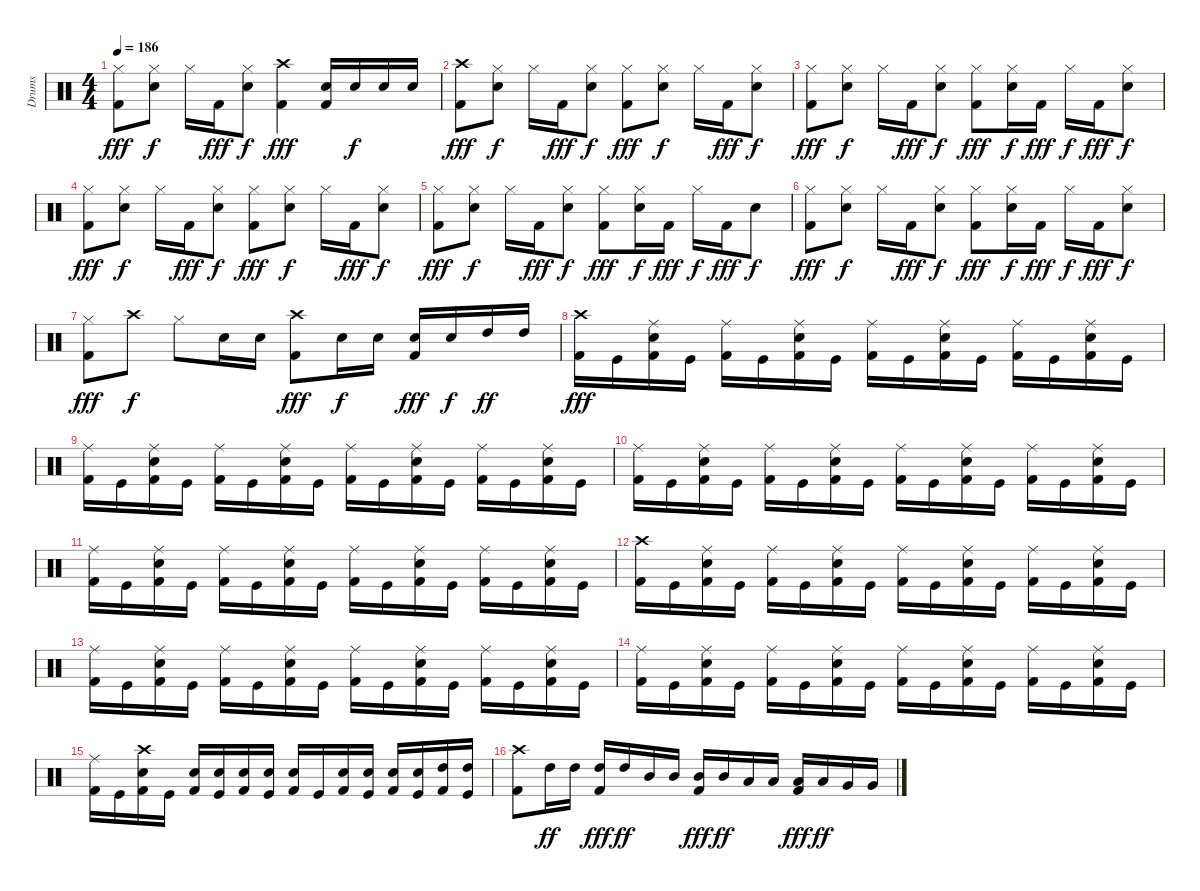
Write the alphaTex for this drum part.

\track ("Drums" "Drums") {instrument percussion}
\staff {score}
\articulation defaults
\ts (4 4)
\tempo 186
\clef neutral
\ks c
("Hi-Hat (closed)" "Kick (hit) 2").8{dy fff} ("Hi-Hat (closed)" "Electric Snare (hit)").8{dy f} "Hi-Hat (closed)".16 "Kick (hit) 2".16{dy fff} ("Hi-Hat (closed)" "Electric Snare (hit)").8{dy f} ("Crash high (hit)" "Kick (hit) 2").4{dy fff} ("Electric Snare (hit)" "Kick (hit) 2").16 "Electric Snare (hit)".16{dy f} "Electric Snare (hit)".16 "Electric Snare (hit)".16 |
("Crash high (hit)" "Kick (hit) 2").8{dy fff} ("Hi-Hat (closed)" "Electric Snare (hit)").8{dy f} "Hi-Hat (closed)".16 "Kick (hit) 2".16{dy fff} ("Hi-Hat (closed)" "Electric Snare (hit)").8{dy f} ("Hi-Hat (closed)" "Kick (hit) 2").8{dy fff} ("Hi-Hat (closed)" "Electric Snare (hit)").8{dy f} "Hi-Hat (closed)".16 "Kick (hit) 2".16{dy fff} ("Hi-Hat (closed)" "Electric Snare (hit)").8{dy f} |
("Hi-Hat (closed)" "Kick (hit) 2").8{dy fff} ("Hi-Hat (closed)" "Electric Snare (hit)").8{dy f} "Hi-Hat (closed)".16 "Kick (hit) 2".16{dy fff} ("Hi-Hat (closed)" "Electric Snare (hit)").8{dy f} ("Hi-Hat (closed)" "Kick (hit) 2").8{dy fff} ("Hi-Hat (closed)" "Electric Snare (hit)").16{dy f} "Kick (hit) 2".16{dy fff} "Hi-Hat (closed)".16{dy f} "Kick (hit) 2".16{dy fff} ("Hi-Hat (closed)" "Electric Snare (hit)").8{dy f} |
("Hi-Hat (closed)" "Kick (hit) 2").8{dy fff} ("Hi-Hat (closed)" "Electric Snare (hit)").8{dy f} "Hi-Hat (closed)".16 "Kick (hit) 2".16{dy fff} ("Hi-Hat (closed)" "Electric Snare (hit)").8{dy f} ("Hi-Hat (closed)" "Kick (hit) 2").8{dy fff} ("Hi-Hat (closed)" "Electric Snare (hit)").8{dy f} "Hi-Hat (closed)".16 "Kick (hit) 2".16{dy fff} ("Hi-Hat (closed)" "Electric Snare (hit)").8{dy f} |
("Hi-Hat (closed)" "Kick (hit) 2").8{dy fff} ("Hi-Hat (closed)" "Electric Snare (hit)").8{dy f} "Hi-Hat (closed)".16 "Kick (hit) 2".16{dy fff} ("Hi-Hat (closed)" "Electric Snare (hit)").8{dy f} ("Hi-Hat (closed)" "Kick (hit) 2").8{dy fff} ("Hi-Hat (closed)" "Electric Snare (hit)").16{dy f} "Kick (hit) 2".16{dy fff} "Hi-Hat (closed)".16{dy f} "Kick (hit) 2".16{dy fff} "Electric Snare (hit)".8{dy f} |
("Hi-Hat (closed)" "Kick (hit) 2").8{dy fff} ("Hi-Hat (closed)" "Electric Snare (hit)").8{dy f} "Hi-Hat (closed)".16 "Kick (hit) 2".16{dy fff} ("Hi-Hat (closed)" "Electric Snare (hit)").8{dy f} ("Hi-Hat (closed)" "Kick (hit) 2").8{dy fff} ("Hi-Hat (closed)" "Electric Snare (hit)").16{dy f} "Kick (hit) 2".16{dy fff} "Hi-Hat (closed)".16{dy f} "Kick (hit) 2".16{dy fff} ("Hi-Hat (closed)" "Electric Snare (hit)").8{dy f} |
("Hi-Hat (closed)" "Kick (hit) 2").8{dy fff} "Crash high (hit)".8{dy f} "Hi-Hat (closed)".8 "Electric Snare (hit)".16 "Electric Snare (hit)".16 ("Crash high (hit)" "Kick (hit) 2").8{dy fff} "Electric Snare (hit)".16{dy f} "Electric Snare (hit)".16 ("Electric Snare (hit)" "Kick (hit) 2").16{dy fff} "Electric Snare (hit)".16{dy f} "High Tom (hit)".16{dy ff} "High Tom (hit)".16 |
("Crash high (hit)" "Kick (hit) 2").16{dy fff} "Kick (hit)".16 ("Ride (middle)" "Electric Snare (hit)" "Kick (hit) 2").16 "Kick (hit)".16 ("Ride (middle)" "Kick (hit) 2").16 "Kick (hit)".16 ("Ride (middle)" "Electric Snare (hit)" "Kick (hit) 2").16 "Kick (hit)".16 ("Ride (middle)" "Kick (hit) 2").16 "Kick (hit)".16 ("Ride (middle)" "Electric Snare (hit)" "Kick (hit) 2").16 "Kick (hit)".16 ("Ride (middle)" "Kick (hit) 2").16 "Kick (hit)".16 ("Ride (middle)" "Electric Snare (hit)" "Kick (hit) 2").16 "Kick (hit)".16 |
("Ride (middle)" "Kick (hit) 2").16 "Kick (hit)".16 ("Ride (middle)" "Electric Snare (hit)" "Kick (hit) 2").16 "Kick (hit)".16 ("Ride (middle)" "Kick (hit) 2").16 "Kick (hit)".16 ("Ride (middle)" "Electric Snare (hit)" "Kick (hit) 2").16 "Kick (hit)".16 ("Ride (middle)" "Kick (hit) 2").16 "Kick (hit)".16 ("Ride (middle)" "Electric Snare (hit)" "Kick (hit) 2").16 "Kick (hit)".16 ("Ride (middle)" "Kick (hit) 2").16 "Kick (hit)".16 ("Ride (middle)" "Electric Snare (hit)" "Kick (hit) 2").16 "Kick (hit)".16 |
("Ride (middle)" "Kick (hit) 2").16 "Kick (hit)".16 ("Ride (middle)" "Electric Snare (hit)" "Kick (hit) 2").16 "Kick (hit)".16 ("Ride (middle)" "Kick (hit) 2").16 "Kick (hit)".16 ("Ride (middle)" "Electric Snare (hit)" "Kick (hit) 2").16 "Kick (hit)".16 ("Ride (middle)" "Kick (hit) 2").16 "Kick (hit)".16 ("Ride (middle)" "Electric Snare (hit)" "Kick (hit) 2").16 "Kick (hit)".16 ("Ride (middle)" "Kick (hit) 2").16 "Kick (hit)".16 ("Ride (middle)" "Electric Snare (hit)" "Kick (hit) 2").16 "Kick (hit)".16 |
("Ride (middle)" "Kick (hit) 2").16 "Kick (hit)".16 ("Ride (middle)" "Electric Snare (hit)" "Kick (hit) 2").16 "Kick (hit)".16 ("Ride (middle)" "Kick (hit) 2").16 "Kick (hit)".16 ("Ride (middle)" "Electric Snare (hit)" "Kick (hit) 2").16 "Kick (hit)".16 ("Ride (middle)" "Kick (hit) 2").16 "Kick (hit)".16 ("Ride (middle)" "Electric Snare (hit)" "Kick (hit) 2").16 "Kick (hit)".16 ("Ride (middle)" "Kick (hit) 2").16 "Kick (hit)".16 ("Ride (middle)" "Electric Snare (hit)" "Kick (hit) 2").16 "Kick (hit)".16 |
("Crash high (hit)" "Kick (hit) 2").16 "Kick (hit)".16 ("Ride (middle)" "Electric Snare (hit)" "Kick (hit) 2").16 "Kick (hit)".16 ("Ride (middle)" "Kick (hit) 2").16 "Kick (hit)".16 ("Ride (middle)" "Electric Snare (hit)" "Kick (hit) 2").16 "Kick (hit)".16 ("Ride (middle)" "Kick (hit) 2").16 "Kick (hit)".16 ("Ride (middle)" "Electric Snare (hit)" "Kick (hit) 2").16 "Kick (hit)".16 ("Ride (middle)" "Kick (hit) 2").16 "Kick (hit)".16 ("Ride (middle)" "Electric Snare (hit)" "Kick (hit) 2").16 "Kick (hit)".16 |
("Ride (middle)" "Kick (hit) 2").16 "Kick (hit)".16 ("Ride (middle)" "Electric Snare (hit)" "Kick (hit) 2").16 "Kick (hit)".16 ("Ride (middle)" "Kick (hit) 2").16 "Kick (hit)".16 ("Ride (middle)" "Electric Snare (hit)" "Kick (hit) 2").16 "Kick (hit)".16 ("Ride (middle)" "Kick (hit) 2").16 "Kick (hit)".16 ("Ride (middle)" "Electric Snare (hit)" "Kick (hit) 2").16 "Kick (hit)".16 ("Ride (middle)" "Kick (hit) 2").16 "Kick (hit)".16 ("Ride (middle)" "Electric Snare (hit)" "Kick (hit) 2").16 "Kick (hit)".16 |
("Ride (middle)" "Kick (hit) 2").16 "Kick (hit)".16 ("Ride (middle)" "Electric Snare (hit)" "Kick (hit) 2").16 "Kick (hit)".16 ("Ride (middle)" "Kick (hit) 2").16 "Kick (hit)".16 ("Ride (middle)" "Electric Snare (hit)" "Kick (hit) 2").16 "Kick (hit)".16 ("Ride (middle)" "Kick (hit) 2").16 "Kick (hit)".16 ("Ride (middle)" "Electric Snare (hit)" "Kick (hit) 2").16 "Kick (hit)".16 ("Ride (middle)" "Kick (hit) 2").16 "Kick (hit)".16 ("Ride (middle)" "Electric Snare (hit)" "Kick (hit) 2").16 "Kick (hit)".16 |
("Ride (middle)" "Kick (hit) 2").16 "Kick (hit)".16 ("Crash high (hit)" "Electric Snare (hit)" "Kick (hit) 2").16 "Kick (hit)".16 ("Electric Snare (hit)" "Kick (hit) 2").16 ("Electric Snare (hit)" "Kick (hit)").16 ("Electric Snare (hit)" "Kick (hit) 2").16 ("Electric Snare (hit)" "Kick (hit)").16 ("Electric Snare (hit)" "Kick (hit) 2").16 "Kick (hit)".16 ("Electric Snare (hit)" "Kick (hit) 2").16 ("Electric Snare (hit)" "Kick (hit)").16 ("Electric Snare (hit)" "Kick (hit) 2").16 ("Electric Snare (hit)" "Kick (hit)").16 ("High Tom (hit)" "Kick (hit) 2").16 ("High Tom (hit)" "Kick (hit)").16 |
("Crash high (hit)" "Kick (hit) 2").8 "High Tom (hit)".16{dy ff} "High Tom (hit)".16 ("High Tom (hit)" "Kick (hit) 2").16{dy fff} "High Tom (hit)".16{dy ff} "Mid Tom (hit)".16 "Mid Tom (hit)".16 ("Mid Tom (hit)" "Kick (hit) 2").16{dy fff} "Mid Tom (hit)".16{dy ff} "Low Tom (hit)".16 "Low Tom (hit)".16 ("Low Tom (hit)" "Kick (hit) 2").16{dy fff} "Low Tom (hit)".16{dy ff} "Very Low Tom (hit)".16 "Very Low Tom (hit)".16
